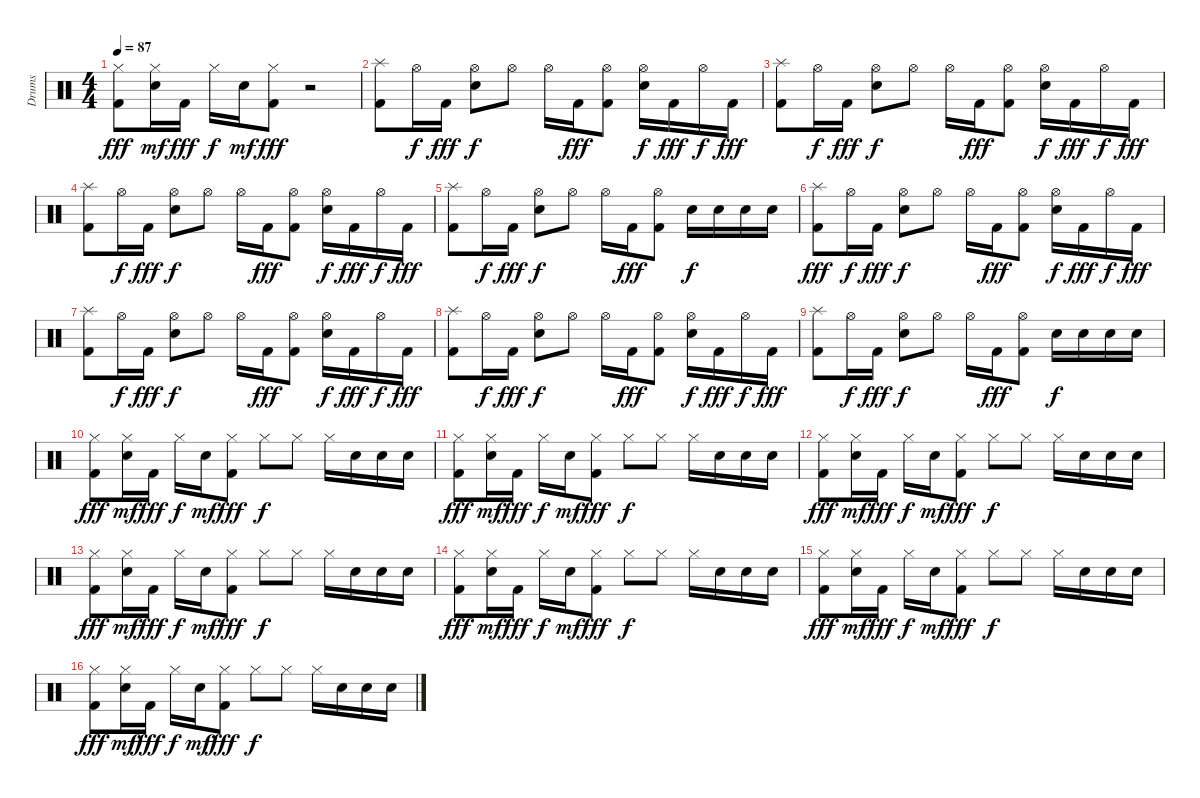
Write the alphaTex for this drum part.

\track ("Drums" "Drums") {instrument percussion}
\staff {score}
\articulation defaults
\ts (4 4)
\tempo 87
\clef neutral
\ks c
("Hi-Hat (closed)" "Kick (hit) 2").8{dy fff} ("Hi-Hat (closed)" "Snare (hit) 2").16{dy mf} "Kick (hit) 2".16{dy fff} "Hi-Hat (closed)".16{dy f} "Snare (hit) 2".16{dy mf} ("Hi-Hat (closed)" "Kick (hit) 2").8{dy fff} r.2 |
("Splash (hit)" "Kick (hit) 2").8{volume 13} "Hi-Hat (open)".16{dy f} "Kick (hit) 2".16{dy fff} ("Hi-Hat (open)" "Snare (hit) 2").8{dy f} "Hi-Hat (open)".8 "Hi-Hat (open)".16 "Kick (hit) 2".16{dy fff} ("Hi-Hat (open)" "Kick (hit) 2").8 ("Hi-Hat (open)" "Snare (hit) 2").16{dy f} "Kick (hit) 2".16{dy fff} "Hi-Hat (open)".16{dy f} "Kick (hit) 2".16{dy fff} |
("Splash (hit)" "Kick (hit) 2").8 "Hi-Hat (open)".16{dy f} "Kick (hit) 2".16{dy fff} ("Hi-Hat (open)" "Snare (hit) 2").8{dy f} "Hi-Hat (open)".8 "Hi-Hat (open)".16 "Kick (hit) 2".16{dy fff} ("Hi-Hat (open)" "Kick (hit) 2").8 ("Hi-Hat (open)" "Snare (hit) 2").16{dy f} "Kick (hit) 2".16{dy fff} "Hi-Hat (open)".16{dy f} "Kick (hit) 2".16{dy fff} |
("Splash (hit)" "Kick (hit) 2").8 "Hi-Hat (open)".16{dy f} "Kick (hit) 2".16{dy fff} ("Hi-Hat (open)" "Snare (hit) 2").8{dy f} "Hi-Hat (open)".8 "Hi-Hat (open)".16 "Kick (hit) 2".16{dy fff} ("Hi-Hat (open)" "Kick (hit) 2").8 ("Hi-Hat (open)" "Snare (hit) 2").16{dy f} "Kick (hit) 2".16{dy fff} "Hi-Hat (open)".16{dy f} "Kick (hit) 2".16{dy fff} |
("Splash (hit)" "Kick (hit) 2").8 "Hi-Hat (open)".16{dy f} "Kick (hit) 2".16{dy fff} ("Hi-Hat (open)" "Snare (hit) 2").8{dy f} "Hi-Hat (open)".8 "Hi-Hat (open)".16 "Kick (hit) 2".16{dy fff} ("Hi-Hat (open)" "Kick (hit) 2").8 "Snare (hit) 2".16{dy f} "Snare (hit) 2".16 "Snare (hit) 2".16 "Snare (hit) 2".16 |
("Splash (hit)" "Kick (hit) 2").8{dy fff} "Hi-Hat (open)".16{dy f} "Kick (hit) 2".16{dy fff} ("Hi-Hat (open)" "Snare (hit) 2").8{dy f} "Hi-Hat (open)".8 "Hi-Hat (open)".16 "Kick (hit) 2".16{dy fff} ("Hi-Hat (open)" "Kick (hit) 2").8 ("Hi-Hat (open)" "Snare (hit) 2").16{dy f} "Kick (hit) 2".16{dy fff} "Hi-Hat (open)".16{dy f} "Kick (hit) 2".16{dy fff} |
("Splash (hit)" "Kick (hit) 2").8 "Hi-Hat (open)".16{dy f} "Kick (hit) 2".16{dy fff} ("Hi-Hat (open)" "Snare (hit) 2").8{dy f} "Hi-Hat (open)".8 "Hi-Hat (open)".16 "Kick (hit) 2".16{dy fff} ("Hi-Hat (open)" "Kick (hit) 2").8 ("Hi-Hat (open)" "Snare (hit) 2").16{dy f} "Kick (hit) 2".16{dy fff} "Hi-Hat (open)".16{dy f} "Kick (hit) 2".16{dy fff} |
("Splash (hit)" "Kick (hit) 2").8 "Hi-Hat (open)".16{dy f} "Kick (hit) 2".16{dy fff} ("Hi-Hat (open)" "Snare (hit) 2").8{dy f} "Hi-Hat (open)".8 "Hi-Hat (open)".16 "Kick (hit) 2".16{dy fff} ("Hi-Hat (open)" "Kick (hit) 2").8 ("Hi-Hat (open)" "Snare (hit) 2").16{dy f} "Kick (hit) 2".16{dy fff} "Hi-Hat (open)".16{dy f} "Kick (hit) 2".16{dy fff} |
("Splash (hit)" "Kick (hit) 2").8 "Hi-Hat (open)".16{dy f} "Kick (hit) 2".16{dy fff} ("Hi-Hat (open)" "Snare (hit) 2").8{dy f} "Hi-Hat (open)".8 "Hi-Hat (open)".16 "Kick (hit) 2".16{dy fff} ("Hi-Hat (open)" "Kick (hit) 2").8 "Snare (hit) 2".16{dy f} "Snare (hit) 2".16 "Snare (hit) 2".16 "Snare (hit) 2".16 |
("Hi-Hat (closed)" "Kick (hit) 2").8{dy fff volume 10} ("Hi-Hat (closed)" "Snare (hit) 2").16{dy mf} "Kick (hit) 2".16{dy fff} "Hi-Hat (closed)".16{dy f} "Snare (hit) 2".16{dy mf} ("Hi-Hat (closed)" "Kick (hit) 2").8{dy fff} "Hi-Hat (closed)".8{dy f} "Hi-Hat (closed)".8 "Hi-Hat (closed)".16 "Snare (hit) 2".16 "Snare (hit) 2".16 "Snare (hit) 2".16 |
("Hi-Hat (closed)" "Kick (hit) 2").8{dy fff} ("Hi-Hat (closed)" "Snare (hit) 2").16{dy mf} "Kick (hit) 2".16{dy fff} "Hi-Hat (closed)".16{dy f} "Snare (hit) 2".16{dy mf} ("Hi-Hat (closed)" "Kick (hit) 2").8{dy fff} "Hi-Hat (closed)".8{dy f} "Hi-Hat (closed)".8 "Hi-Hat (closed)".16 "Snare (hit) 2".16 "Snare (hit) 2".16 "Snare (hit) 2".16 |
("Hi-Hat (closed)" "Kick (hit) 2").8{dy fff} ("Hi-Hat (closed)" "Snare (hit) 2").16{dy mf} "Kick (hit) 2".16{dy fff} "Hi-Hat (closed)".16{dy f} "Snare (hit) 2".16{dy mf} ("Hi-Hat (closed)" "Kick (hit) 2").8{dy fff} "Hi-Hat (closed)".8{dy f} "Hi-Hat (closed)".8 "Hi-Hat (closed)".16 "Snare (hit) 2".16 "Snare (hit) 2".16 "Snare (hit) 2".16 |
("Hi-Hat (closed)" "Kick (hit) 2").8{dy fff} ("Hi-Hat (closed)" "Snare (hit) 2").16{dy mf} "Kick (hit) 2".16{dy fff} "Hi-Hat (closed)".16{dy f} "Snare (hit) 2".16{dy mf} ("Hi-Hat (closed)" "Kick (hit) 2").8{dy fff} "Hi-Hat (closed)".8{dy f} "Hi-Hat (closed)".8 "Hi-Hat (closed)".16 "Snare (hit) 2".16 "Snare (hit) 2".16 "Snare (hit) 2".16 |
("Hi-Hat (closed)" "Kick (hit) 2").8{dy fff} ("Hi-Hat (closed)" "Snare (hit) 2").16{dy mf} "Kick (hit) 2".16{dy fff} "Hi-Hat (closed)".16{dy f} "Snare (hit) 2".16{dy mf} ("Hi-Hat (closed)" "Kick (hit) 2").8{dy fff} "Hi-Hat (closed)".8{dy f} "Hi-Hat (closed)".8 "Hi-Hat (closed)".16 "Snare (hit) 2".16 "Snare (hit) 2".16 "Snare (hit) 2".16 |
("Hi-Hat (closed)" "Kick (hit) 2").8{dy fff} ("Hi-Hat (closed)" "Snare (hit) 2").16{dy mf} "Kick (hit) 2".16{dy fff} "Hi-Hat (closed)".16{dy f} "Snare (hit) 2".16{dy mf} ("Hi-Hat (closed)" "Kick (hit) 2").8{dy fff} "Hi-Hat (closed)".8{dy f} "Hi-Hat (closed)".8 "Hi-Hat (closed)".16 "Snare (hit) 2".16 "Snare (hit) 2".16 "Snare (hit) 2".16 |
("Hi-Hat (closed)" "Kick (hit) 2").8{dy fff} ("Hi-Hat (closed)" "Snare (hit) 2").16{dy mf} "Kick (hit) 2".16{dy fff} "Hi-Hat (closed)".16{dy f} "Snare (hit) 2".16{dy mf} ("Hi-Hat (closed)" "Kick (hit) 2").8{dy fff} "Hi-Hat (closed)".8{dy f} "Hi-Hat (closed)".8 "Hi-Hat (closed)".16 "Snare (hit) 2".16 "Snare (hit) 2".16 "Snare (hit) 2".16
